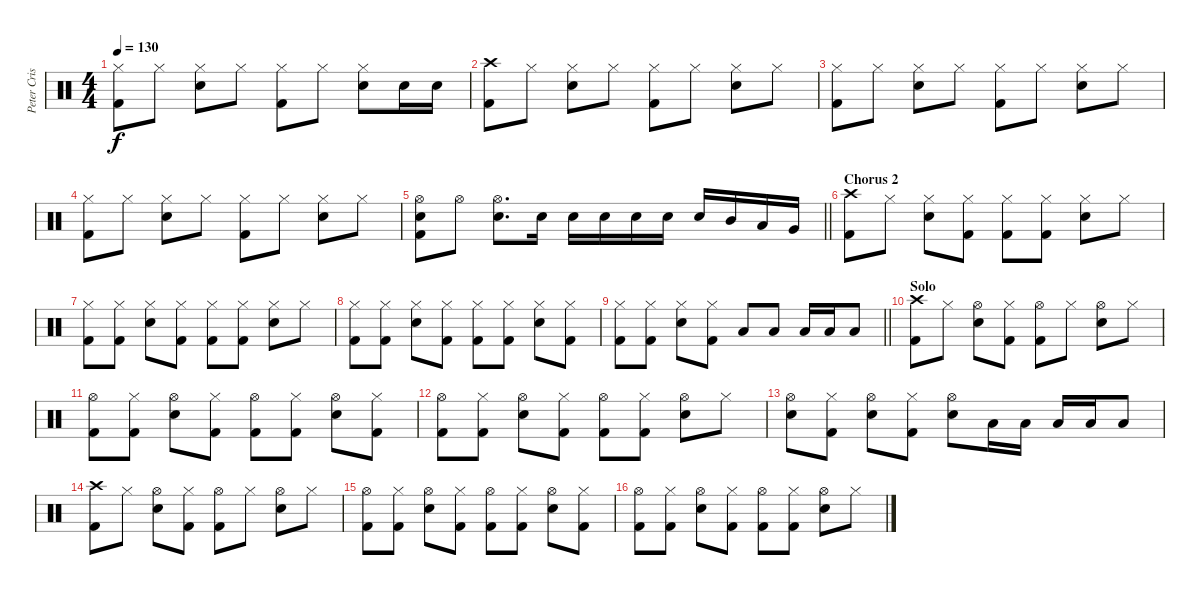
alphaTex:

\track ("Peter Criss" "Peter Cris") {instrument percussion}
\staff {score}
\articulation defaults
\ts (4 4)
\tempo 130
\clef neutral
\ks c
("Hi-Hat (closed)" "Kick (hit) 2").8{dy f} "Hi-Hat (closed)".8 ("Hi-Hat (closed)" "Snare (hit) 2").8 "Hi-Hat (closed)".8 ("Hi-Hat (closed)" "Kick (hit) 2").8 "Hi-Hat (closed)".8 ("Hi-Hat (closed)" "Snare (hit) 2").8 "Snare (hit) 2".16 "Snare (hit) 2".16 |
("Crash high (hit)" "Kick (hit) 2").8 "Hi-Hat (closed)".8 ("Hi-Hat (closed)" "Snare (hit) 2").8 "Hi-Hat (closed)".8 ("Hi-Hat (closed)" "Kick (hit) 2").8 "Hi-Hat (closed)".8 ("Hi-Hat (closed)" "Snare (hit) 2").8 "Hi-Hat (closed)".8 |
("Hi-Hat (closed)" "Kick (hit) 2").8 "Hi-Hat (closed)".8 ("Hi-Hat (closed)" "Snare (hit) 2").8 "Hi-Hat (closed)".8 ("Hi-Hat (closed)" "Kick (hit) 2").8 "Hi-Hat (closed)".8 ("Hi-Hat (closed)" "Snare (hit) 2").8 "Hi-Hat (closed)".8 |
("Hi-Hat (closed)" "Kick (hit) 2").8 "Hi-Hat (closed)".8 ("Hi-Hat (closed)" "Snare (hit) 2").8 "Hi-Hat (closed)".8 ("Hi-Hat (closed)" "Kick (hit) 2").8 "Hi-Hat (closed)".8 ("Hi-Hat (closed)" "Snare (hit) 2").8 "Hi-Hat (closed)".8 |
\barLineRight lightlight
("Hi-Hat (open)" "Snare (hit) 2" "Kick (hit) 2").8 "Hi-Hat (open)".8 ("Hi-Hat (open)" "Snare (hit) 2").8{d} "Snare (hit) 2".16 "Snare (hit) 2".16 "Snare (hit) 2".16 "Snare (hit) 2".16 "Snare (hit) 2".16 "Snare (hit) 2".16 "Mid Tom (hit)".16 "Low Tom (hit)".16 "Very Low Tom (hit)".16 |
\section ("" "Chorus 2")
("Crash high (hit)" "Kick (hit) 2").8 "Hi-Hat (closed)".8 ("Hi-Hat (closed)" "Snare (hit) 2").8 ("Hi-Hat (closed)" "Kick (hit) 2").8 ("Hi-Hat (closed)" "Kick (hit) 2").8 ("Hi-Hat (closed)" "Kick (hit) 2").8 ("Hi-Hat (closed)" "Snare (hit) 2").8 "Hi-Hat (closed)".8 |
("Hi-Hat (closed)" "Kick (hit) 2").8 ("Hi-Hat (closed)" "Kick (hit) 2").8 ("Hi-Hat (closed)" "Snare (hit) 2").8 ("Hi-Hat (closed)" "Kick (hit) 2").8 ("Hi-Hat (closed)" "Kick (hit) 2").8 ("Hi-Hat (closed)" "Kick (hit) 2").8 ("Hi-Hat (closed)" "Snare (hit) 2").8 "Hi-Hat (closed)".8 |
("Hi-Hat (closed)" "Kick (hit) 2").8 ("Hi-Hat (closed)" "Kick (hit) 2").8 ("Hi-Hat (closed)" "Snare (hit) 2").8 ("Hi-Hat (closed)" "Kick (hit) 2").8 ("Hi-Hat (closed)" "Kick (hit) 2").8 ("Hi-Hat (closed)" "Kick (hit) 2").8 ("Hi-Hat (closed)" "Snare (hit) 2").8 ("Hi-Hat (closed)" "Kick (hit) 2").8 |
\barLineRight lightlight
("Hi-Hat (closed)" "Kick (hit) 2").8 ("Hi-Hat (closed)" "Kick (hit) 2").8 ("Hi-Hat (closed)" "Snare (hit) 2").8 ("Hi-Hat (closed)" "Kick (hit) 2").8 "Low Tom (hit)".8 "Low Tom (hit)".8 "Low Tom (hit)".16 "Low Tom (hit)".16 "Low Tom (hit)".8 |
\section ("" "Solo")
("Crash high (hit)" "Kick (hit) 2").8 "Hi-Hat (closed)".8 ("Hi-Hat (open)" "Snare (hit) 2").8 ("Hi-Hat (closed)" "Kick (hit) 2").8 ("Hi-Hat (open)" "Kick (hit) 2").8 "Hi-Hat (closed)".8 ("Hi-Hat (open)" "Snare (hit) 2").8 "Hi-Hat (closed)".8 |
("Hi-Hat (open)" "Kick (hit) 2").8 ("Hi-Hat (closed)" "Kick (hit) 2").8 ("Hi-Hat (open)" "Snare (hit) 2").8 ("Hi-Hat (closed)" "Kick (hit) 2").8 ("Hi-Hat (open)" "Kick (hit) 2").8 ("Hi-Hat (closed)" "Kick (hit) 2").8 ("Hi-Hat (open)" "Snare (hit) 2").8 ("Hi-Hat (closed)" "Kick (hit) 2").8 |
("Hi-Hat (open)" "Kick (hit) 2").8 ("Hi-Hat (closed)" "Kick (hit) 2").8 ("Hi-Hat (open)" "Snare (hit) 2").8 ("Hi-Hat (closed)" "Kick (hit) 2").8 ("Hi-Hat (open)" "Kick (hit) 2").8 ("Hi-Hat (closed)" "Kick (hit) 2").8 ("Hi-Hat (open)" "Snare (hit) 2").8 "Hi-Hat (closed)".8 |
("Hi-Hat (open)" "Snare (hit) 2").8 ("Hi-Hat (closed)" "Kick (hit) 2").8 ("Hi-Hat (open)" "Snare (hit) 2").8 ("Hi-Hat (closed)" "Kick (hit) 2").8 ("Hi-Hat (open)" "Snare (hit) 2").8 "Low Tom (hit)".16 "Low Tom (hit)".16 "Low Tom (hit)".16 "Low Tom (hit)".16 "Low Tom (hit)".8 |
("Crash high (hit)" "Kick (hit) 2").8 "Hi-Hat (closed)".8 ("Hi-Hat (open)" "Snare (hit) 2").8 ("Hi-Hat (closed)" "Kick (hit) 2").8 ("Hi-Hat (open)" "Kick (hit) 2").8 "Hi-Hat (closed)".8 ("Hi-Hat (open)" "Snare (hit) 2").8 "Hi-Hat (closed)".8 |
("Hi-Hat (open)" "Kick (hit) 2").8 ("Hi-Hat (closed)" "Kick (hit) 2").8 ("Hi-Hat (open)" "Snare (hit) 2").8 ("Hi-Hat (closed)" "Kick (hit) 2").8 ("Hi-Hat (open)" "Kick (hit) 2").8 ("Hi-Hat (closed)" "Kick (hit) 2").8 ("Hi-Hat (open)" "Snare (hit) 2").8 ("Hi-Hat (closed)" "Kick (hit) 2").8 |
("Hi-Hat (open)" "Kick (hit) 2").8 ("Hi-Hat (closed)" "Kick (hit) 2").8 ("Hi-Hat (open)" "Snare (hit) 2").8 ("Hi-Hat (closed)" "Kick (hit) 2").8 ("Hi-Hat (open)" "Kick (hit) 2").8 ("Hi-Hat (closed)" "Kick (hit) 2").8 ("Hi-Hat (open)" "Snare (hit) 2").8 "Hi-Hat (closed)".8
